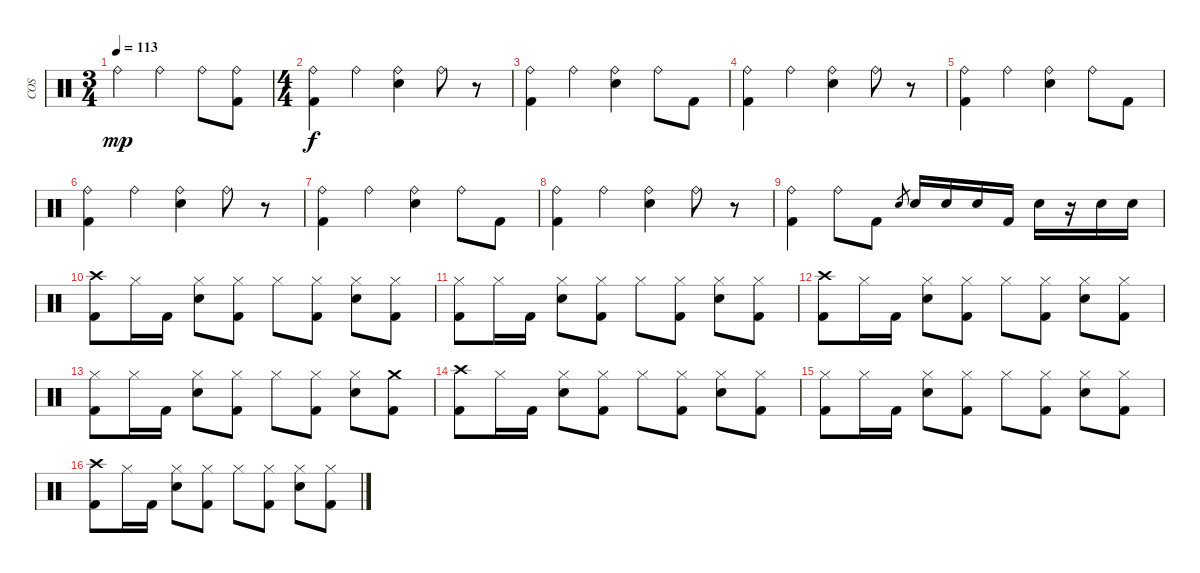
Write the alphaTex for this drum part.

\track ("COS" "COS") {instrument percussion}
\staff {score}
\articulation defaults
\ts (3 4)
\tempo 113
\clef neutral
\ks c "Ride (bell)".4{dy mp} "Ride (bell)".4 "Ride (bell)".8
("Ride (bell)" "Kick (hit) 2").8 |
\ts (4 4)
("Ride (bell)" "Kick (hit) 2").4{dy f} "Ride (bell)".4 ("Ride (bell)" "Electric Snare (hit)").4 "Ride (bell)".8 r.8 |
("Ride (bell)" "Kick (hit) 2").4 "Ride (bell)".4 ("Ride (bell)" "Electric Snare (hit)").4 "Ride (bell)".8 "Kick (hit) 2".8 |
("Ride (bell)" "Kick (hit) 2").4 "Ride (bell)".4 ("Ride (bell)" "Electric Snare (hit)").4 "Ride (bell)".8 r.8 |
("Ride (bell)" "Kick (hit) 2").4 "Ride (bell)".4 ("Ride (bell)" "Electric Snare (hit)").4 "Ride (bell)".8 "Kick (hit) 2".8 |
("Ride (bell)" "Kick (hit) 2").4 "Ride (bell)".4 ("Ride (bell)" "Electric Snare (hit)").4 "Ride (bell)".8 r.8 |
("Ride (bell)" "Kick (hit) 2").4 "Ride (bell)".4 ("Ride (bell)" "Electric Snare (hit)").4 "Ride (bell)".8 "Kick (hit) 2".8 |
("Ride (bell)" "Kick (hit) 2").4 "Ride (bell)".4 ("Ride (bell)" "Electric Snare (hit)").4 "Ride (bell)".8 r.8 |
("Ride (bell)" "Kick (hit) 2").4 "Ride (bell)".8 "Kick (hit) 2".8 "Electric Snare (hit)"{sl}.8{gr} "Electric Snare (hit)".16 "Electric Snare (hit)".16 "Electric Snare (hit)".16 "Kick (hit) 2".16 "Electric Snare (hit)".16 r.16 "Electric Snare (hit)".16 "Electric Snare (hit)".16 |
("Crash high (hit)" "Kick (hit) 2").8 "Hi-Hat (closed)".16 "Kick (hit) 2".16 ("Hi-Hat (closed)" "Electric Snare (hit)").8 ("Hi-Hat (closed)" "Kick (hit) 2").8 "Hi-Hat (closed)".8 ("Hi-Hat (closed)" "Kick (hit) 2").8 ("Hi-Hat (closed)" "Electric Snare (hit)").8 ("Hi-Hat (closed)" "Kick (hit) 2").8 |
("Hi-Hat (closed)" "Kick (hit) 2").8 "Hi-Hat (closed)".16 "Kick (hit) 2".16 ("Hi-Hat (closed)" "Electric Snare (hit)").8 ("Hi-Hat (closed)" "Kick (hit) 2").8 "Hi-Hat (closed)".8 ("Hi-Hat (closed)" "Kick (hit) 2").8 ("Hi-Hat (closed)" "Electric Snare (hit)").8 ("Hi-Hat (closed)" "Kick (hit) 2").8 |
("Crash high (hit)" "Kick (hit) 2").8 "Hi-Hat (closed)".16 "Kick (hit) 2".16 ("Hi-Hat (closed)" "Electric Snare (hit)").8 ("Hi-Hat (closed)" "Kick (hit) 2").8 "Hi-Hat (closed)".8 ("Hi-Hat (closed)" "Kick (hit) 2").8 ("Hi-Hat (closed)" "Electric Snare (hit)").8 ("Hi-Hat (closed)" "Kick (hit) 2").8 |
("Hi-Hat (closed)" "Kick (hit) 2").8 "Hi-Hat (closed)".16 "Kick (hit) 2".16 ("Hi-Hat (closed)" "Electric Snare (hit)").8 ("Hi-Hat (closed)" "Kick (hit) 2").8 "Hi-Hat (closed)".8 ("Hi-Hat (closed)" "Kick (hit) 2").8 ("Hi-Hat (closed)" "Electric Snare (hit)").8 ("Crash medium (hit)" "Kick (hit) 2").8 |
("Crash high (hit)" "Kick (hit) 2").8 "Hi-Hat (closed)".16 "Kick (hit) 2".16 ("Hi-Hat (closed)" "Electric Snare (hit)").8 ("Hi-Hat (closed)" "Kick (hit) 2").8 "Hi-Hat (closed)".8 ("Hi-Hat (closed)" "Kick (hit) 2").8 ("Hi-Hat (closed)" "Electric Snare (hit)").8 ("Hi-Hat (closed)" "Kick (hit) 2").8 |
("Hi-Hat (closed)" "Kick (hit) 2").8 "Hi-Hat (closed)".16 "Kick (hit) 2".16 ("Hi-Hat (closed)" "Electric Snare (hit)").8 ("Hi-Hat (closed)" "Kick (hit) 2").8 "Hi-Hat (closed)".8 ("Hi-Hat (closed)" "Kick (hit) 2").8 ("Hi-Hat (closed)" "Electric Snare (hit)").8 ("Hi-Hat (closed)" "Kick (hit) 2").8 |
("Crash high (hit)" "Kick (hit) 2").8 "Hi-Hat (closed)".16 "Kick (hit) 2".16 ("Hi-Hat (closed)" "Electric Snare (hit)").8 ("Hi-Hat (closed)" "Kick (hit) 2").8 "Hi-Hat (closed)".8 ("Hi-Hat (closed)" "Kick (hit) 2").8 ("Hi-Hat (closed)" "Electric Snare (hit)").8 ("Hi-Hat (closed)" "Kick (hit) 2").8
